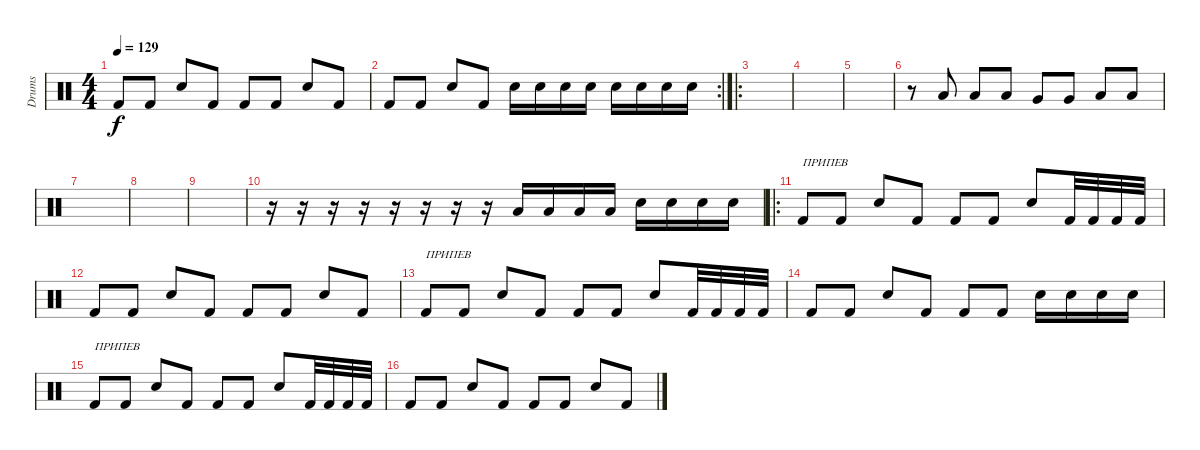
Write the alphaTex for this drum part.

\track ("Drums" "Drums") {instrument percussion}
\staff {score}
\articulation defaults
\ts (4 4)
\tempo 129
\clef neutral
\ks c "Kick (hit) 2".8{dy f} "Kick (hit) 2".8 "Snare (hit) 2".8 "Kick (hit) 2".8 "Kick (hit) 2".8 "Kick (hit) 2".8 "Snare (hit) 2".8 "Kick (hit) 2".8
|
\rc 2 "Kick (hit) 2".8 "Kick (hit) 2".8 "Snare (hit) 2".8 "Kick (hit) 2".8 "Snare (hit) 2".16 "Snare (hit) 2".16 "Snare (hit) 2".16 "Snare (hit) 2".16 "Snare (hit) 2".16 "Snare (hit) 2".16 "Snare (hit) 2".16 "Snare (hit) 2".16
|
\ro
|
|
|
r.8 "Low Tom (hit)".8 "Low Tom (hit)".8 "Low Tom (hit)".8 "Very Low Tom (hit)".8 "Very Low Tom (hit)".8 "Low Floor Tom (hit)".8 "Low Floor Tom (hit)".8 |
|
|
|
r.16 r.16 r.16 r.16 r.16 r.16 r.16 r.16 "Low Tom (hit)".16 "Low Tom (hit)".16 "Low Tom (hit)".16 "Low Tom (hit)".16 "Snare (hit) 2".16 "Snare (hit) 2".16 "Snare (hit) 2".16 "Snare (hit) 2".16 |
\ro "Kick (hit) 2".8{txt "ПРИПЕВ"} "Kick (hit) 2".8 "Snare (hit) 2".8 "Kick (hit) 2".8 "Kick (hit) 2".8 "Kick (hit) 2".8 "Snare (hit) 2".8 "Kick (hit) 2".32 "Kick (hit) 2".32 "Kick (hit) 2".32 "Kick (hit) 2".32
|
"Kick (hit) 2".8 "Kick (hit) 2".8 "Snare (hit) 2".8 "Kick (hit) 2".8 "Kick (hit) 2".8 "Kick (hit) 2".8 "Snare (hit) 2".8 "Kick (hit) 2".8 |
"Kick (hit) 2".8{txt "ПРИПЕВ"} "Kick (hit) 2".8 "Snare (hit) 2".8 "Kick (hit) 2".8 "Kick (hit) 2".8 "Kick (hit) 2".8 "Snare (hit) 2".8 "Kick (hit) 2".32 "Kick (hit) 2".32 "Kick (hit) 2".32 "Kick (hit) 2".32 |
"Kick (hit) 2".8 "Kick (hit) 2".8 "Snare (hit) 2".8 "Kick (hit) 2".8 "Kick (hit) 2".8 "Kick (hit) 2".8 "Snare (hit) 2".16 "Snare (hit) 2".16 "Snare (hit) 2".16 "Snare (hit) 2".16 |
"Kick (hit) 2".8{txt "ПРИПЕВ"} "Kick (hit) 2".8 "Snare (hit) 2".8 "Kick (hit) 2".8 "Kick (hit) 2".8 "Kick (hit) 2".8 "Snare (hit) 2".8 "Kick (hit) 2".32 "Kick (hit) 2".32 "Kick (hit) 2".32 "Kick (hit) 2".32 |
"Kick (hit) 2".8 "Kick (hit) 2".8 "Snare (hit) 2".8 "Kick (hit) 2".8 "Kick (hit) 2".8 "Kick (hit) 2".8 "Snare (hit) 2".8 "Kick (hit) 2".8
